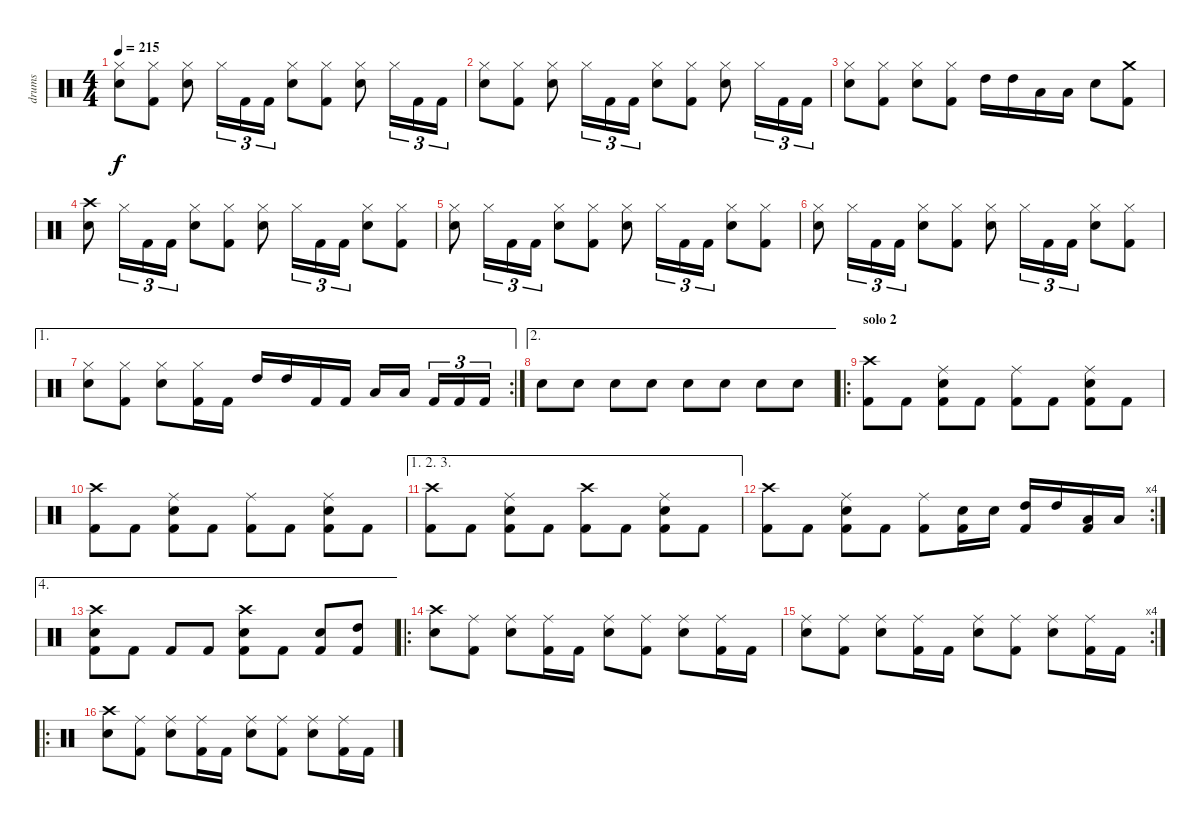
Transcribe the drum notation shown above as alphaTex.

\track ("drums" "drums") {instrument percussion}
\staff {score}
\articulation defaults
\ts (4 4)
\tempo 215
\clef neutral
\ks c
("Hi-Hat (closed)" "Electric Snare (hit)").8{dy f} ("Hi-Hat (closed)" "Kick (hit) 2").8 ("Hi-Hat (closed)" "Electric Snare (hit)").8 "Hi-Hat (closed)".16{tu (3 2)} "Kick (hit) 2".16{tu (3 2)} "Kick (hit) 2".16{tu (3 2)} ("Hi-Hat (closed)" "Electric Snare (hit)").8 ("Hi-Hat (closed)" "Kick (hit) 2").8 ("Hi-Hat (closed)" "Electric Snare (hit)").8 "Hi-Hat (closed)".16{tu (3 2)} "Kick (hit) 2".16{tu (3 2)} "Kick (hit) 2".16{tu (3 2)} |
("Hi-Hat (closed)" "Electric Snare (hit)").8 ("Hi-Hat (closed)" "Kick (hit) 2").8 ("Hi-Hat (closed)" "Electric Snare (hit)").8 "Hi-Hat (closed)".16{tu (3 2)} "Kick (hit) 2".16{tu (3 2)} "Kick (hit) 2".16{tu (3 2)} ("Hi-Hat (closed)" "Electric Snare (hit)").8 ("Hi-Hat (closed)" "Kick (hit) 2").8 ("Hi-Hat (closed)" "Electric Snare (hit)").8 "Hi-Hat (closed)".16{tu (3 2)} "Kick (hit) 2".16{tu (3 2)} "Kick (hit) 2".16{tu (3 2)} |
("Hi-Hat (closed)" "Electric Snare (hit)").8 ("Hi-Hat (closed)" "Kick (hit) 2").8 ("Hi-Hat (closed)" "Electric Snare (hit)").8 ("Hi-Hat (closed)" "Kick (hit) 2").8 "High Tom (hit)".16 "High Tom (hit)".16 "Low Tom (hit)".16 "Low Tom (hit)".16 "Electric Snare (hit)".8 ("Crash medium (hit)" "Kick (hit) 2").8 |
("Crash high (hit)" "Electric Snare (hit)").8 "Hi-Hat (closed)".16{tu (3 2)} "Kick (hit) 2".16{tu (3 2)} "Kick (hit) 2".16{tu (3 2)} ("Hi-Hat (closed)" "Electric Snare (hit)").8 ("Hi-Hat (closed)" "Kick (hit) 2").8 ("Hi-Hat (closed)" "Electric Snare (hit)").8 "Hi-Hat (closed)".16{tu (3 2)} "Kick (hit) 2".16{tu (3 2)} "Kick (hit) 2".16{tu (3 2)} ("Hi-Hat (closed)" "Electric Snare (hit)").8 ("Hi-Hat (closed)" "Kick (hit) 2").8 |
("Hi-Hat (closed)" "Electric Snare (hit)").8 "Hi-Hat (closed)".16{tu (3 2)} "Kick (hit) 2".16{tu (3 2)} "Kick (hit) 2".16{tu (3 2)} ("Hi-Hat (closed)" "Electric Snare (hit)").8 ("Hi-Hat (closed)" "Kick (hit) 2").8 ("Hi-Hat (closed)" "Electric Snare (hit)").8 "Hi-Hat (closed)".16{tu (3 2)} "Kick (hit) 2".16{tu (3 2)} "Kick (hit) 2".16{tu (3 2)} ("Hi-Hat (closed)" "Electric Snare (hit)").8 ("Hi-Hat (closed)" "Kick (hit) 2").8 |
("Hi-Hat (closed)" "Electric Snare (hit)").8 "Hi-Hat (closed)".16{tu (3 2)} "Kick (hit) 2".16{tu (3 2)} "Kick (hit) 2".16{tu (3 2)} ("Hi-Hat (closed)" "Electric Snare (hit)").8 ("Hi-Hat (closed)" "Kick (hit) 2").8 ("Hi-Hat (closed)" "Electric Snare (hit)").8 "Hi-Hat (closed)".16{tu (3 2)} "Kick (hit) 2".16{tu (3 2)} "Kick (hit) 2".16{tu (3 2)} ("Hi-Hat (closed)" "Electric Snare (hit)").8 ("Hi-Hat (closed)" "Kick (hit) 2").8 |
\ae 1
\rc 2
("Hi-Hat (closed)" "Electric Snare (hit)").8 ("Hi-Hat (closed)" "Kick (hit) 2").8 ("Hi-Hat (closed)" "Electric Snare (hit)").8 ("Hi-Hat (closed)" "Kick (hit) 2").16 "Kick (hit) 2".16 "High Tom (hit)".16 "High Tom (hit)".16 "Kick (hit) 2".16 "Kick (hit) 2".16 "Low Tom (hit)".16 "Low Tom (hit)".16 "Kick (hit) 2".16{tu (3 2)} "Kick (hit) 2".16{tu (3 2)} "Kick (hit) 2".16{tu (3 2)} |
\ae 2 "Electric Snare (hit)".8 "Electric Snare (hit)".8 "Electric Snare (hit)".8 "Electric Snare (hit)".8 "Electric Snare (hit)".8 "Electric Snare (hit)".8 "Electric Snare (hit)".8 "Electric Snare (hit)".8
|
\ro
\section ("" "solo 2")
("Crash high (hit)" "Kick (hit) 2").8 "Kick (hit) 2".8 ("Ride (middle)" "Electric Snare (hit)" "Kick (hit) 2").8 "Kick (hit) 2".8 ("Ride (middle)" "Kick (hit) 2").8 "Kick (hit) 2".8 ("Ride (middle)" "Electric Snare (hit)" "Kick (hit) 2").8 "Kick (hit) 2".8 |
("Crash high (hit)" "Kick (hit) 2").8 "Kick (hit) 2".8 ("Ride (middle)" "Electric Snare (hit)" "Kick (hit) 2").8 "Kick (hit) 2".8 ("Ride (middle)" "Kick (hit) 2").8 "Kick (hit) 2".8 ("Ride (middle)" "Electric Snare (hit)" "Kick (hit) 2").8 "Kick (hit) 2".8 |
\ae (1 2 3)
("Crash high (hit)" "Kick (hit) 2").8 "Kick (hit) 2".8 ("Ride (middle)" "Electric Snare (hit)" "Kick (hit) 2").8 "Kick (hit) 2".8 ("Crash high (hit)" "Kick (hit) 2").8 "Kick (hit) 2".8 ("Ride (middle)" "Electric Snare (hit)" "Kick (hit) 2").8 "Kick (hit) 2".8 |
\rc 4
("Crash high (hit)" "Kick (hit) 2").8 "Kick (hit) 2".8 ("Ride (middle)" "Electric Snare (hit)" "Kick (hit) 2").8 "Kick (hit) 2".8 ("Ride (middle)" "Kick (hit) 2").8 ("Electric Snare (hit)" "Kick (hit) 2").16 "Electric Snare (hit)".16 ("High Tom (hit)" "Kick (hit) 2").16 "High Tom (hit)".16 ("Low Tom (hit)" "Kick (hit) 2").16 "Low Tom (hit)".16 |
\ae 4
("Crash high (hit)" "Electric Snare (hit)" "Kick (hit) 2").8 "Kick (hit) 2".8 "Kick (hit) 2".8 "Kick (hit) 2".8 ("Crash high (hit)" "Electric Snare (hit)" "Kick (hit) 2").8 "Kick (hit) 2".8 ("Electric Snare (hit)" "Kick (hit) 2").8 ("High Tom (hit)" "Kick (hit) 2").8 |
\ro
("Crash high (hit)" "Electric Snare (hit)").8 ("Ride (middle)" "Kick (hit) 2").8 ("Ride (middle)" "Electric Snare (hit)").8 ("Ride (middle)" "Kick (hit) 2").16 "Kick (hit) 2".16 ("Ride (middle)" "Electric Snare (hit)").8 ("Ride (middle)" "Kick (hit) 2").8 ("Ride (middle)" "Electric Snare (hit)").8 ("Ride (middle)" "Kick (hit) 2").16 "Kick (hit) 2".16 |
\rc 4
("Ride (middle)" "Electric Snare (hit)").8 ("Ride (middle)" "Kick (hit) 2").8 ("Ride (middle)" "Electric Snare (hit)").8 ("Ride (middle)" "Kick (hit) 2").16 "Kick (hit) 2".16 ("Ride (middle)" "Electric Snare (hit)").8 ("Ride (middle)" "Kick (hit) 2").8 ("Ride (middle)" "Electric Snare (hit)").8 ("Ride (middle)" "Kick (hit) 2").16 "Kick (hit) 2".16 |
\ro
\section ("" "")
("Crash high (hit)" "Electric Snare (hit)").8 ("Ride (middle)" "Kick (hit) 2").8 ("Ride (middle)" "Electric Snare (hit)").8 ("Ride (middle)" "Kick (hit) 2").16 "Kick (hit) 2".16 ("Ride (middle)" "Electric Snare (hit)").8 ("Ride (middle)" "Kick (hit) 2").8 ("Ride (middle)" "Electric Snare (hit)").8 ("Ride (middle)" "Kick (hit) 2").16 "Kick (hit) 2".16
